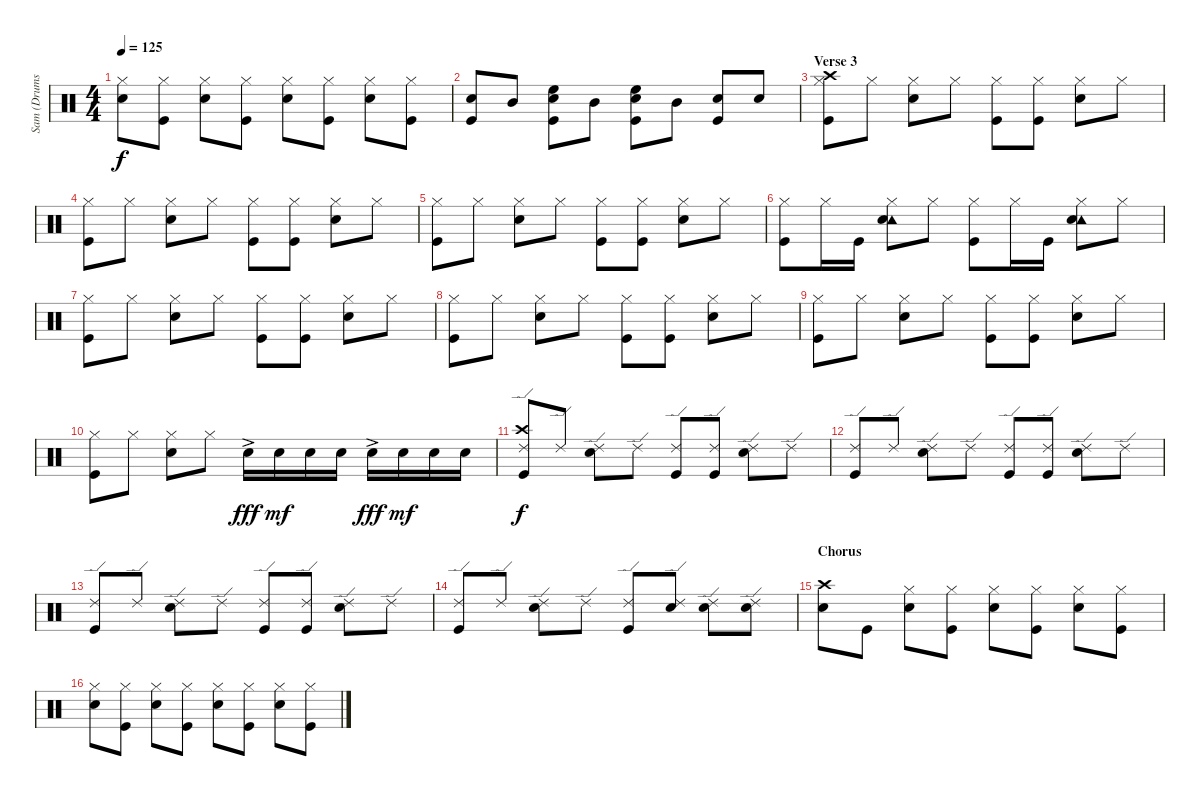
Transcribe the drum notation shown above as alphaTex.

\track ("Sam (Drums)" "Sam (Drums") {instrument percussion}
\staff {score}
\articulation defaults
\ts (4 4)
\tempo 125
\clef neutral
\ks c
("Hi-Hat (closed)" "Snare (hit) 2").8{dy f} ("Hi-Hat (closed)" "Kick (hit)").8 ("Hi-Hat (closed)" "Snare (hit) 2").8 ("Hi-Hat (closed)" "Kick (hit)").8 ("Hi-Hat (closed)" "Snare (hit) 2").8 ("Hi-Hat (closed)" "Kick (hit)").8 ("Hi-Hat (closed)" "Snare (hit) 2").8 ("Hi-Hat (closed)" "Kick (hit)").8 |
("Snare (hit) 2" "Kick (hit)").8 "Mid Tom (hit)".8 ("High Floor Tom (hit)" "Snare (hit) 2" "Kick (hit)").8 "Mid Tom (hit)".8 ("High Floor Tom (hit)" "Snare (hit) 2" "Kick (hit)").8 "Mid Tom (hit)".8 ("Snare (hit) 2" "Kick (hit)").8 "Snare (hit) 2".8 |
\section ("" "Verse 3")
("Crash high (hit)" "Hi-Hat (closed)" "Kick (hit)").8 "Hi-Hat (closed)".8 ("Hi-Hat (closed)" "Snare (hit) 2").8 "Hi-Hat (closed)".8 ("Hi-Hat (closed)" "Kick (hit)").8 ("Hi-Hat (closed)" "Kick (hit)").8 ("Hi-Hat (closed)" "Snare (hit) 2").8 "Hi-Hat (closed)".8 |
("Hi-Hat (closed)" "Kick (hit)").8 "Hi-Hat (closed)".8 ("Hi-Hat (closed)" "Snare (hit) 2").8 "Hi-Hat (closed)".8 ("Hi-Hat (closed)" "Kick (hit)").8 ("Hi-Hat (closed)" "Kick (hit)").8 ("Hi-Hat (closed)" "Snare (hit) 2").8 "Hi-Hat (closed)".8 |
("Hi-Hat (closed)" "Kick (hit)").8 "Hi-Hat (closed)".8 ("Hi-Hat (closed)" "Snare (hit) 2").8 "Hi-Hat (closed)".8 ("Hi-Hat (closed)" "Kick (hit)").8 ("Hi-Hat (closed)" "Kick (hit)").8 ("Hi-Hat (closed)" "Snare (hit) 2").8 "Hi-Hat (closed)".8 |
("Hi-Hat (closed)" "Kick (hit)").8 "Hi-Hat (closed)".16 "Kick (hit)".16 ("Hi-Hat (closed)" "Tambourine (hit)" "Snare (hit) 2").8 "Hi-Hat (closed)".8 ("Hi-Hat (closed)" "Kick (hit)").8 "Hi-Hat (closed)".16 "Kick (hit)".16 ("Hi-Hat (closed)" "Tambourine (hit)" "Snare (hit) 2").8 "Hi-Hat (closed)".8 |
("Hi-Hat (closed)" "Kick (hit)").8 "Hi-Hat (closed)".8 ("Hi-Hat (closed)" "Snare (hit) 2").8 "Hi-Hat (closed)".8 ("Hi-Hat (closed)" "Kick (hit)").8 ("Hi-Hat (closed)" "Kick (hit)").8 ("Hi-Hat (closed)" "Snare (hit) 2").8 "Hi-Hat (closed)".8 |
("Hi-Hat (closed)" "Kick (hit)").8 "Hi-Hat (closed)".8 ("Hi-Hat (closed)" "Snare (hit) 2").8 "Hi-Hat (closed)".8 ("Hi-Hat (closed)" "Kick (hit)").8 ("Hi-Hat (closed)" "Kick (hit)").8 ("Hi-Hat (closed)" "Snare (hit) 2").8 "Hi-Hat (closed)".8 |
("Hi-Hat (closed)" "Kick (hit)").8 "Hi-Hat (closed)".8 ("Hi-Hat (closed)" "Snare (hit) 2").8 "Hi-Hat (closed)".8 ("Hi-Hat (closed)" "Kick (hit)").8 ("Hi-Hat (closed)" "Kick (hit)").8 ("Hi-Hat (closed)" "Snare (hit) 2").8 "Hi-Hat (closed)".8 |
("Hi-Hat (closed)" "Kick (hit)").8 "Hi-Hat (closed)".8 ("Hi-Hat (closed)" "Snare (hit) 2").8 "Hi-Hat (closed)".8 "Snare (hit) 2"{ac}.16{dy fff} "Snare (hit) 2".16{dy mf} "Snare (hit) 2".16 "Snare (hit) 2".16 "Snare (hit) 2"{ac}.16{dy fff} "Snare (hit) 2".16{dy mf} "Snare (hit) 2".16 "Snare (hit) 2".16 |
("Crash high (hit)" "Ride (edge) 2" "Kick (hit)").8{dy f} "Ride (edge) 2".8 ("Ride (edge) 2" "Snare (hit) 2").8 "Ride (edge) 2".8 ("Ride (edge) 2" "Kick (hit)").8 ("Ride (edge) 2" "Kick (hit)").8 ("Ride (edge) 2" "Snare (hit) 2").8 "Ride (edge) 2".8 |
("Ride (edge) 2" "Kick (hit)").8 "Ride (edge) 2".8 ("Ride (edge) 2" "Snare (hit) 2").8 "Ride (edge) 2".8 ("Ride (edge) 2" "Kick (hit)").8 ("Ride (edge) 2" "Kick (hit)").8 ("Ride (edge) 2" "Snare (hit) 2").8 "Ride (edge) 2".8 |
("Ride (edge) 2" "Kick (hit)").8 "Ride (edge) 2".8 ("Ride (edge) 2" "Snare (hit) 2").8 "Ride (edge) 2".8 ("Ride (edge) 2" "Kick (hit)").8 ("Ride (edge) 2" "Kick (hit)").8 ("Ride (edge) 2" "Snare (hit) 2").8 "Ride (edge) 2".8 |
("Ride (edge) 2" "Kick (hit)").8 "Ride (edge) 2".8 ("Ride (edge) 2" "Snare (hit) 2").8 "Ride (edge) 2".8 ("Ride (edge) 2" "Kick (hit)").8 ("Ride (edge) 2" "Snare (hit) 2").8 ("Ride (edge) 2" "Snare (hit) 2").8 ("Ride (edge) 2" "Snare (hit) 2").8 |
\section ("" "Chorus")
("Crash high (hit)" "Snare (hit) 2").8 "Kick (hit)".8 ("Hi-Hat (closed)" "Snare (hit) 2").8 ("Hi-Hat (closed)" "Kick (hit)").8 ("Hi-Hat (closed)" "Snare (hit) 2").8 ("Hi-Hat (closed)" "Kick (hit)").8 ("Hi-Hat (closed)" "Snare (hit) 2").8 ("Hi-Hat (closed)" "Kick (hit)").8 |
("Hi-Hat (closed)" "Snare (hit) 2").8 ("Hi-Hat (closed)" "Kick (hit)").8 ("Hi-Hat (closed)" "Snare (hit) 2").8 ("Hi-Hat (closed)" "Kick (hit)").8 ("Hi-Hat (closed)" "Snare (hit) 2").8 ("Hi-Hat (closed)" "Kick (hit)").8 ("Hi-Hat (closed)" "Snare (hit) 2").8 ("Hi-Hat (closed)" "Kick (hit)").8
